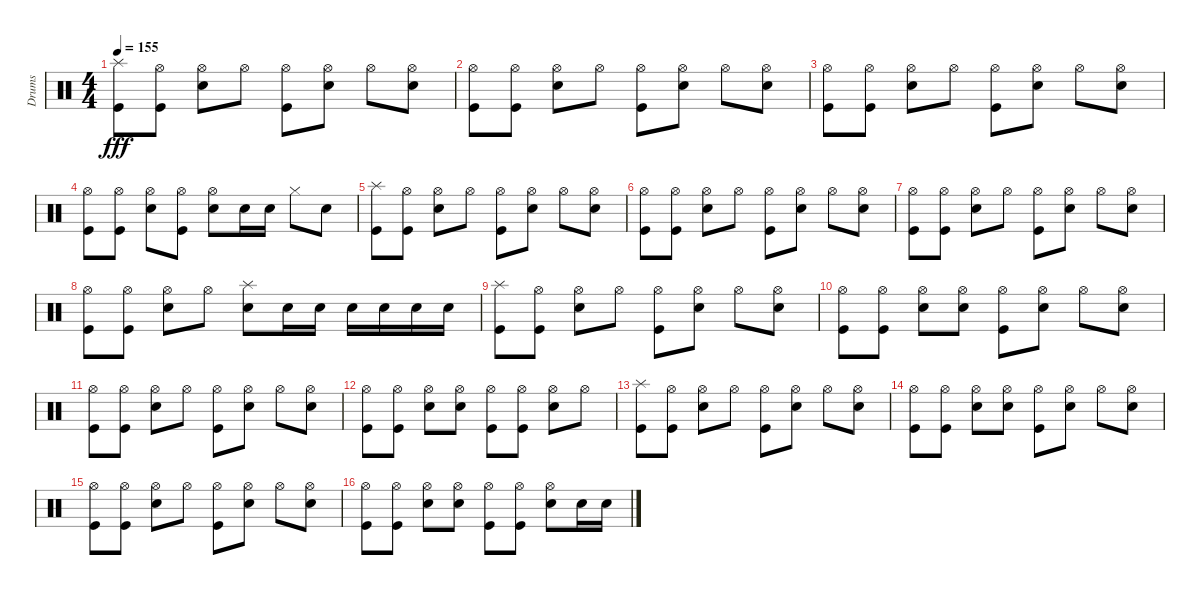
\track ("Drums" "Drums") {instrument percussion}
\staff {score}
\articulation defaults
\ts (4 4)
\tempo 155
\clef neutral
\ks c
("Splash (hit)" "Kick (hit)").8{dy fff} ("Hi-Hat (open)" "Kick (hit)").8 ("Hi-Hat (open)" "Snare (hit) 2").8 "Hi-Hat (open)".8 ("Hi-Hat (open)" "Kick (hit)").8 ("Hi-Hat (open)" "Snare (hit) 2").8 "Hi-Hat (open)".8 ("Hi-Hat (open)" "Snare (hit) 2").8 |
("Hi-Hat (open)" "Kick (hit)").8 ("Hi-Hat (open)" "Kick (hit)").8 ("Hi-Hat (open)" "Snare (hit) 2").8 "Hi-Hat (open)".8 ("Hi-Hat (open)" "Kick (hit)").8 ("Hi-Hat (open)" "Snare (hit) 2").8 "Hi-Hat (open)".8 ("Hi-Hat (open)" "Snare (hit) 2").8 |
("Hi-Hat (open)" "Kick (hit)").8 ("Hi-Hat (open)" "Kick (hit)").8 ("Hi-Hat (open)" "Snare (hit) 2").8 "Hi-Hat (open)".8 ("Hi-Hat (open)" "Kick (hit)").8 ("Hi-Hat (open)" "Snare (hit) 2").8 "Hi-Hat (open)".8 ("Hi-Hat (open)" "Snare (hit) 2").8 |
("Hi-Hat (open)" "Kick (hit)").8 ("Hi-Hat (open)" "Kick (hit)").8 ("Hi-Hat (open)" "Snare (hit) 2").8 ("Hi-Hat (open)" "Kick (hit)").8 ("Hi-Hat (open)" "Snare (hit) 2").8 "Snare (hit) 2".16 "Snare (hit) 2".16 "Hi-Hat (closed)".8 "Snare (hit) 2".8 |
("Splash (hit)" "Kick (hit)").8 ("Hi-Hat (open)" "Kick (hit)").8 ("Hi-Hat (open)" "Snare (hit) 2").8 "Hi-Hat (open)".8 ("Hi-Hat (open)" "Kick (hit)").8 ("Hi-Hat (open)" "Snare (hit) 2").8 "Hi-Hat (open)".8 ("Hi-Hat (open)" "Snare (hit) 2").8 |
("Hi-Hat (open)" "Kick (hit)").8 ("Hi-Hat (open)" "Kick (hit)").8 ("Hi-Hat (open)" "Snare (hit) 2").8 "Hi-Hat (open)".8 ("Hi-Hat (open)" "Kick (hit)").8 ("Hi-Hat (open)" "Snare (hit) 2").8 "Hi-Hat (open)".8 ("Hi-Hat (open)" "Snare (hit) 2").8 |
("Hi-Hat (open)" "Kick (hit)").8 ("Hi-Hat (open)" "Kick (hit)").8 ("Hi-Hat (open)" "Snare (hit) 2").8 "Hi-Hat (open)".8 ("Hi-Hat (open)" "Kick (hit)").8 ("Hi-Hat (open)" "Snare (hit) 2").8 "Hi-Hat (open)".8 ("Hi-Hat (open)" "Snare (hit) 2").8 |
("Hi-Hat (open)" "Kick (hit)").8 ("Hi-Hat (open)" "Kick (hit)").8 ("Hi-Hat (open)" "Snare (hit) 2").8 "Hi-Hat (open)".8 ("Splash (hit)" "Snare (hit) 2").8 "Snare (hit) 2".16 "Snare (hit) 2".16 "Snare (hit) 2".16 "Snare (hit) 2".16 "Snare (hit) 2".16 "Snare (hit) 2".16 |
("Splash (hit)" "Kick (hit)").8 ("Hi-Hat (open)" "Kick (hit)").8 ("Hi-Hat (open)" "Snare (hit) 2").8 "Hi-Hat (open)".8 ("Hi-Hat (open)" "Kick (hit)").8 ("Hi-Hat (open)" "Snare (hit) 2").8 "Hi-Hat (open)".8 ("Hi-Hat (open)" "Snare (hit) 2").8 |
("Hi-Hat (open)" "Kick (hit)").8 ("Hi-Hat (open)" "Kick (hit)").8 ("Hi-Hat (open)" "Snare (hit) 2").8 ("Hi-Hat (open)" "Snare (hit) 2").8 ("Hi-Hat (open)" "Kick (hit)").8 ("Hi-Hat (open)" "Snare (hit) 2").8 "Hi-Hat (open)".8 ("Hi-Hat (open)" "Snare (hit) 2").8 |
("Hi-Hat (open)" "Kick (hit)").8 ("Hi-Hat (open)" "Kick (hit)").8 ("Hi-Hat (open)" "Snare (hit) 2").8 "Hi-Hat (open)".8 ("Hi-Hat (open)" "Kick (hit)").8 ("Hi-Hat (open)" "Snare (hit) 2").8 "Hi-Hat (open)".8 ("Hi-Hat (open)" "Snare (hit) 2").8 |
("Hi-Hat (open)" "Kick (hit)").8 ("Hi-Hat (open)" "Kick (hit)").8 ("Hi-Hat (open)" "Snare (hit) 2").8 ("Hi-Hat (open)" "Snare (hit) 2").8 ("Hi-Hat (open)" "Kick (hit)").8 ("Hi-Hat (open)" "Kick (hit)").8 ("Hi-Hat (open)" "Snare (hit) 2").8 "Hi-Hat (open)".8 |
("Splash (hit)" "Kick (hit)").8 ("Hi-Hat (open)" "Kick (hit)").8 ("Hi-Hat (open)" "Snare (hit) 2").8 "Hi-Hat (open)".8 ("Hi-Hat (open)" "Kick (hit)").8 ("Hi-Hat (open)" "Snare (hit) 2").8 "Hi-Hat (open)".8 ("Hi-Hat (open)" "Snare (hit) 2").8 |
("Hi-Hat (open)" "Kick (hit)").8 ("Hi-Hat (open)" "Kick (hit)").8 ("Hi-Hat (open)" "Snare (hit) 2").8 ("Hi-Hat (open)" "Snare (hit) 2").8 ("Hi-Hat (open)" "Kick (hit)").8 ("Hi-Hat (open)" "Snare (hit) 2").8 "Hi-Hat (open)".8 ("Hi-Hat (open)" "Snare (hit) 2").8 |
("Hi-Hat (open)" "Kick (hit)").8 ("Hi-Hat (open)" "Kick (hit)").8 ("Hi-Hat (open)" "Snare (hit) 2").8 "Hi-Hat (open)".8 ("Hi-Hat (open)" "Kick (hit)").8 ("Hi-Hat (open)" "Snare (hit) 2").8 "Hi-Hat (open)".8 ("Hi-Hat (open)" "Snare (hit) 2").8 |
("Hi-Hat (open)" "Kick (hit)").8 ("Hi-Hat (open)" "Kick (hit)").8 ("Hi-Hat (open)" "Snare (hit) 2").8 ("Hi-Hat (open)" "Snare (hit) 2").8 ("Hi-Hat (open)" "Kick (hit)").8 ("Hi-Hat (open)" "Kick (hit)").8 ("Hi-Hat (open)" "Snare (hit) 2").8 "Snare (hit) 2".16 "Snare (hit) 2".16
